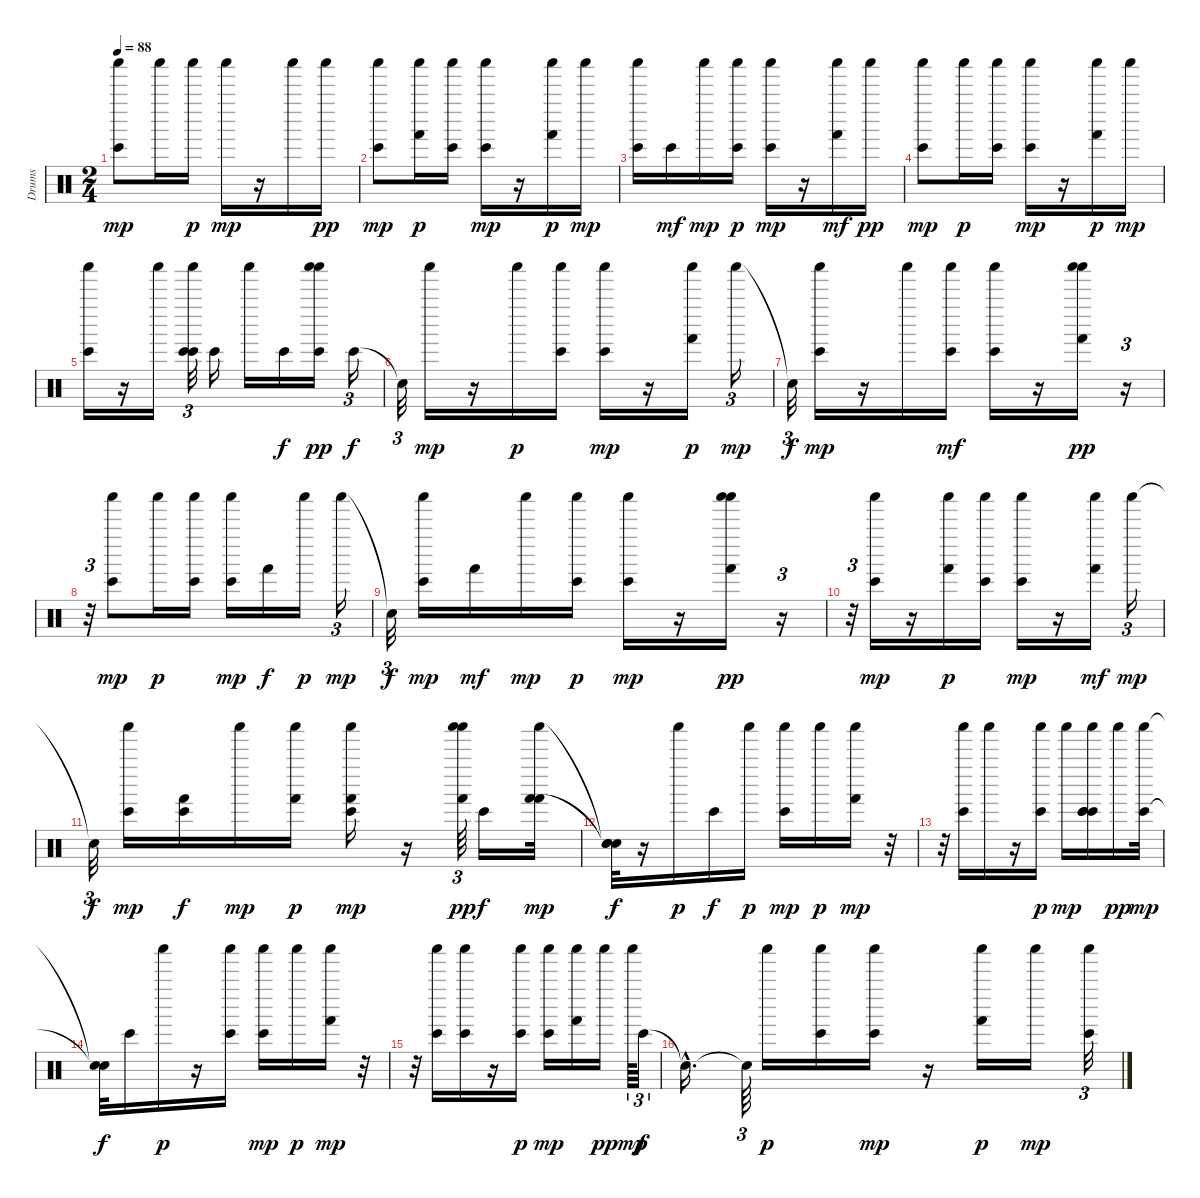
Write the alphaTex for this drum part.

\track ("Drums" "Drums") {instrument percussion}
\staff {score}
\articulation defaults
\ts (2 4)
\tempo 88
\clef neutral
\ks c
("Shaker (hit)" "Bongo High (hit)").8{dy mp} "Shaker (hit)".16 "Shaker (hit)".16{dy p} "Shaker (hit)".16{dy mp} r.16 "Shaker (hit)".16 "Shaker (hit)".16{dy pp} |
("Bongo High (hit)" "Shaker (hit)").8{dy mp} ("Shaker (hit)" "Hand (hit)").16{dy p} ("Bongo High (hit)" "Shaker (hit)").16 ("Bongo High (hit)" "Shaker (hit)").16{dy mp} r.16 ("Shaker (hit)" "Hand (hit)").16{dy p} "Shaker (hit)".16{dy mp} |
("Shaker (hit)" "Bongo High (hit)").16 "Bongo High (hit)".16{dy mf} "Shaker (hit)".16{dy mp} ("Bongo High (hit)" "Shaker (hit)").16{dy p} ("Bongo High (hit)" "Shaker (hit)").16{dy mp} r.16 ("Shaker (hit)" "Hand (hit)").16{dy mf} "Shaker (hit)".16{dy pp} |
("Shaker (hit)" "Bongo High (hit)").8{dy mp} "Shaker (hit)".16{dy p} ("Bongo High (hit)" "Shaker (hit)").16 ("Bongo High (hit)" "Shaker (hit)").16{dy mp} r.16 ("Hand (hit)" "Shaker (hit)").16{dy p} "Shaker (hit)".16{dy mp} |
("Bongo High (hit)" "Shaker (hit)").16 r.16 "Shaker (hit)".16 ("Bongo High (hit)" "Shaker (hit)" "Bongo High (hit)").32{tu (3 2)} "Bongo High (hit)".16 "Shaker (hit)".16 "Bongo High (hit)".16{dy f} ("Shaker (hit)" "Bongo High (hit)" "Shaker (hit)").16{dy pp} "Bongo High (hit)".16{tu (3 2) dy f} |
"Snare (hit)"{t}.32{tu (3 2)} "Shaker (hit)".16{dy mp} r.16 "Shaker (hit)".16{dy p} ("Bongo High (hit)" "Shaker (hit)").16 ("Bongo High (hit)" "Shaker (hit)").16{dy mp} r.16 ("Hand (hit)" "Shaker (hit)").16{dy p} "Shaker (hit)".16{tu (3 2) dy mp} |
"Snare (hit)"{t}.32{tu (3 2) dy f} ("Bongo High (hit)" "Shaker (hit)").16{dy mp} r.16 "Shaker (hit)".16 ("Shaker (hit)" "Bongo High (hit)").16{dy mf} ("Shaker (hit)" "Bongo High (hit)").16 r.16 ("Shaker (hit)" "Hand (hit)" "Shaker (hit)").16{dy pp} r.16{tu (3 2)} |
r.32{tu (3 2)} ("Shaker (hit)" "Bongo High (hit)").8{dy mp} "Shaker (hit)".16{dy p} ("Bongo High (hit)" "Shaker (hit)").16 ("Bongo High (hit)" "Shaker (hit)").16{dy mp} "Hand (hit)".16{dy f} "Shaker (hit)".16{dy p} "Shaker (hit)".16{tu (3 2) dy mp} |
"Snare (hit)"{t}.32{tu (3 2) dy f} ("Bongo High (hit)" "Shaker (hit)").16{dy mp} "Hand (hit)".16{dy mf} "Shaker (hit)".16{dy mp} ("Bongo High (hit)" "Shaker (hit)").16{dy p} ("Bongo High (hit)" "Shaker (hit)").16{dy mp} r.16 ("Shaker (hit)" "Hand (hit)" "Shaker (hit)").16{dy pp} r.16{tu (3 2)} |
r.32{tu (3 2)} ("Shaker (hit)" "Bongo High (hit)").16{dy mp} r.16 ("Shaker (hit)" "Hand (hit)").16{dy p} ("Bongo High (hit)" "Shaker (hit)").16 ("Bongo High (hit)" "Shaker (hit)").16{dy mp} r.16 ("Shaker (hit)" "Hand (hit)").16{dy mf} "Shaker (hit)".16{tu (3 2) dy mp} |
"Snare (hit)"{t}.32{tu (3 2) dy f} ("Shaker (hit)" "Bongo High (hit)").16{dy mp} ("Bongo High (hit)" "Hand (hit)").16{dy f} "Shaker (hit)".16{dy mp} ("Hand (hit)" "Shaker (hit)").16{dy p} ("Bongo High (hit)" "Shaker (hit)" "Hand (hit)").16{dy mp} r.16 ("Shaker (hit)" "Hand (hit)" "Shaker (hit)").64{tu (3 2) dy pp} "Bongo High (hit)".16{dy f} ("Hand (hit)" "Shaker (hit)" "Hand (hit)").32{dy mp} |
("Snare (hit)"{t} "Snare (hit)"{t} "Snare (hit)"{t}).32{dy f} r.16 "Shaker (hit)".16{dy p} "Bongo High (hit)".16{dy f} "Shaker (hit)".16{dy p} ("Shaker (hit)" "Bongo High (hit)").16{dy mp} "Shaker (hit)".16{dy p} ("Hand (hit)" "Shaker (hit)").16{dy mp} r.32 |
r.32 ("Shaker (hit)" "Bongo High (hit)").16 "Shaker (hit)".16 r.16 ("Shaker (hit)" "Bongo High (hit)").16{dy p} "Shaker (hit)".16{dy mp} ("Bongo High (hit)" "Bongo High (hit)" "Shaker (hit)" "Bongo High (hit)").16 "Shaker (hit)".16{dy pp} ("Bongo High (hit)" "Shaker (hit)").32{dy mp} |
("Snare (hit)"{t} "Snare (hit)"{t}).32{dy f} "Bongo High (hit)".16 "Shaker (hit)".16{dy p} r.16 ("Bongo High (hit)" "Shaker (hit)").16 ("Shaker (hit)" "Bongo High (hit)").16{dy mp} "Shaker (hit)".16{dy p} ("Hand (hit)" "Shaker (hit)").16{dy mp} r.32 |
r.32 ("Shaker (hit)" "Bongo High (hit)").16 ("Bongo High (hit)" "Shaker (hit)").16 r.16 ("Shaker (hit)" "Bongo High (hit)").16{dy p} ("Shaker (hit)" "Bongo High (hit)").16{dy mp} ("Shaker (hit)" "Hand (hit)").16 "Shaker (hit)".16{dy pp} "Shaker (hit)".64{tu (3 2) dy mp} "Bongo High (hit)".32{tu (3 2) dy f} |
"Snare (hit)"{hac t}.16{d} "Snare (hit)"{t}.64{tu (3 2)} "Shaker (hit)".16{dy p} ("Bongo High (hit)" "Shaker (hit)").16 ("Shaker (hit)" "Bongo High (hit)").16{dy mp} r.16 ("Hand (hit)" "Shaker (hit)").16{dy p} "Shaker (hit)".16{dy mp} ("Shaker (hit)" "Bongo High (hit)").32{tu (3 2)}
